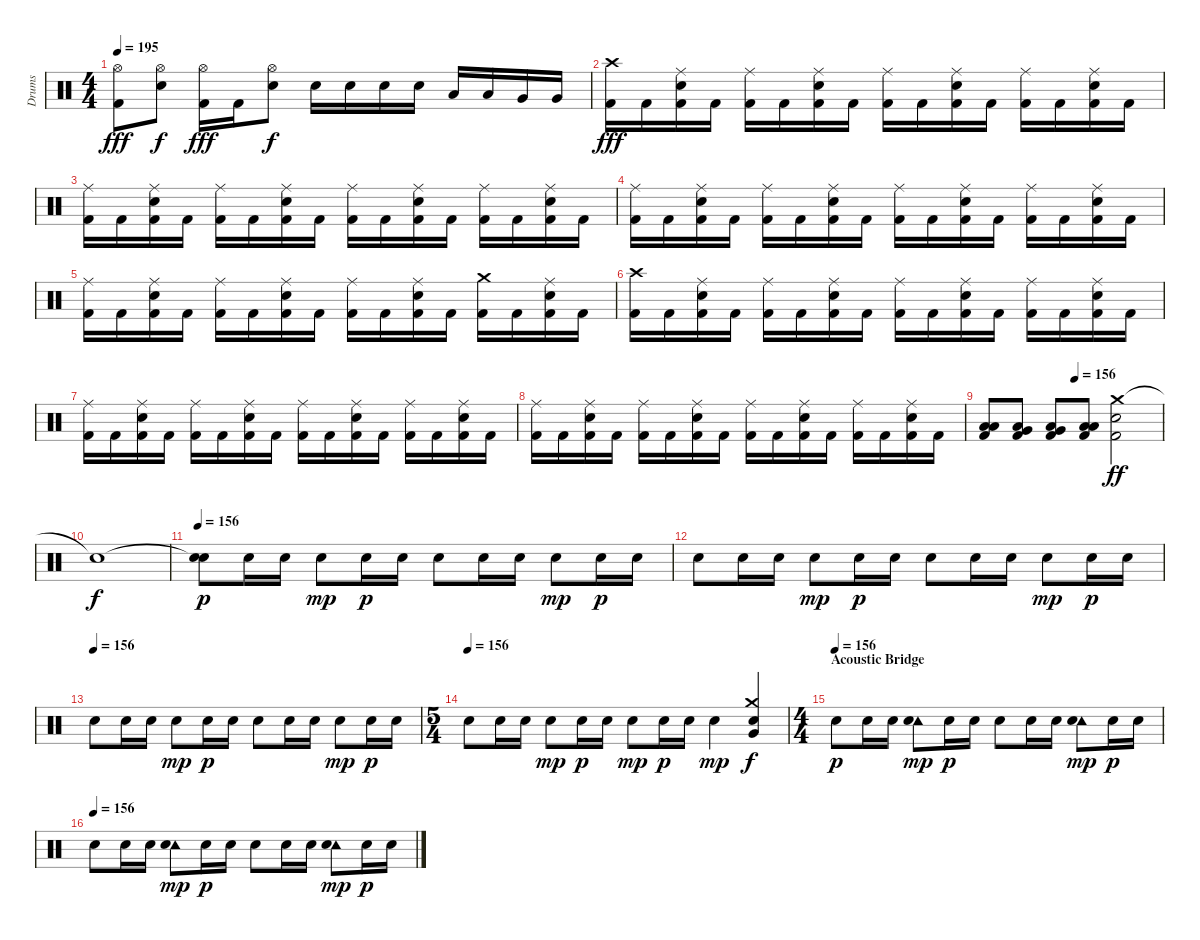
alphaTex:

\track ("Drums" "Drums") {instrument percussion}
\staff {score}
\articulation defaults
\ts (4 4)
\tempo 195
\clef neutral
\ks c
("Hi-Hat (open)" "Kick (hit) 2").8{dy fff} ("Hi-Hat (open)" "Snare (hit) 2").8{dy f} ("Hi-Hat (open)" "Kick (hit) 2").16{dy fff} "Kick (hit) 2".16 ("Hi-Hat (open)" "Snare (hit) 2").8{dy f} "Snare (hit) 2".16 "Snare (hit) 2".16 "Snare (hit) 2".16 "Snare (hit) 2".16 "Low Tom (hit)".16 "Low Tom (hit)".16 "Very Low Tom (hit)".16 "Very Low Tom (hit)".16 |
("Crash high (hit)" "Kick (hit) 2").16{dy fff} "Kick (hit) 2".16 ("Ride (middle)" "Snare (hit) 2" "Kick (hit) 2").16 "Kick (hit) 2".16 ("Ride (middle)" "Kick (hit) 2").16 "Kick (hit) 2".16 ("Ride (middle)" "Snare (hit) 2" "Kick (hit) 2").16 "Kick (hit) 2".16 ("Ride (middle)" "Kick (hit) 2").16 "Kick (hit) 2".16 ("Ride (middle)" "Snare (hit) 2" "Kick (hit) 2").16 "Kick (hit) 2".16 ("Ride (middle)" "Kick (hit) 2").16 "Kick (hit) 2".16 ("Ride (middle)" "Snare (hit) 2" "Kick (hit) 2").16 "Kick (hit) 2".16 |
("Ride (middle)" "Kick (hit) 2").16 "Kick (hit) 2".16 ("Ride (middle)" "Snare (hit) 2" "Kick (hit) 2").16 "Kick (hit) 2".16 ("Ride (middle)" "Kick (hit) 2").16 "Kick (hit) 2".16 ("Ride (middle)" "Snare (hit) 2" "Kick (hit) 2").16 "Kick (hit) 2".16 ("Ride (middle)" "Kick (hit) 2").16 "Kick (hit) 2".16 ("Ride (middle)" "Snare (hit) 2" "Kick (hit) 2").16 "Kick (hit) 2".16 ("Ride (middle)" "Kick (hit) 2").16 "Kick (hit) 2".16 ("Ride (middle)" "Snare (hit) 2" "Kick (hit) 2").16 "Kick (hit) 2".16 |
("Ride (middle)" "Kick (hit) 2").16 "Kick (hit) 2".16 ("Ride (middle)" "Snare (hit) 2" "Kick (hit) 2").16 "Kick (hit) 2".16 ("Ride (middle)" "Kick (hit) 2").16 "Kick (hit) 2".16 ("Ride (middle)" "Snare (hit) 2" "Kick (hit) 2").16 "Kick (hit) 2".16 ("Ride (middle)" "Kick (hit) 2").16 "Kick (hit) 2".16 ("Ride (middle)" "Snare (hit) 2" "Kick (hit) 2").16 "Kick (hit) 2".16 ("Ride (middle)" "Kick (hit) 2").16 "Kick (hit) 2".16 ("Ride (middle)" "Snare (hit) 2" "Kick (hit) 2").16 "Kick (hit) 2".16 |
("Ride (middle)" "Kick (hit) 2").16 "Kick (hit) 2".16 ("Ride (middle)" "Snare (hit) 2" "Kick (hit) 2").16 "Kick (hit) 2".16 ("Ride (middle)" "Kick (hit) 2").16 "Kick (hit) 2".16 ("Ride (middle)" "Snare (hit) 2" "Kick (hit) 2").16 "Kick (hit) 2".16 ("Ride (middle)" "Kick (hit) 2").16 "Kick (hit) 2".16 ("Ride (middle)" "Snare (hit) 2" "Kick (hit) 2").16 "Kick (hit) 2".16 ("Crash medium (hit)" "Kick (hit) 2").16 "Kick (hit) 2".16 ("Ride (middle)" "Snare (hit) 2" "Kick (hit) 2").16 "Kick (hit) 2".16 |
("Crash high (hit)" "Kick (hit) 2").16 "Kick (hit) 2".16 ("Ride (middle)" "Snare (hit) 2" "Kick (hit) 2").16 "Kick (hit) 2".16 ("Ride (middle)" "Kick (hit) 2").16 "Kick (hit) 2".16 ("Ride (middle)" "Snare (hit) 2" "Kick (hit) 2").16 "Kick (hit) 2".16 ("Ride (middle)" "Kick (hit) 2").16 "Kick (hit) 2".16 ("Ride (middle)" "Snare (hit) 2" "Kick (hit) 2").16 "Kick (hit) 2".16 ("Ride (middle)" "Kick (hit) 2").16 "Kick (hit) 2".16 ("Ride (middle)" "Snare (hit) 2" "Kick (hit) 2").16 "Kick (hit) 2".16 |
("Ride (middle)" "Kick (hit) 2").16 "Kick (hit) 2".16 ("Ride (middle)" "Snare (hit) 2" "Kick (hit) 2").16 "Kick (hit) 2".16 ("Ride (middle)" "Kick (hit) 2").16 "Kick (hit) 2".16 ("Ride (middle)" "Snare (hit) 2" "Kick (hit) 2").16 "Kick (hit) 2".16 ("Ride (middle)" "Kick (hit) 2").16 "Kick (hit) 2".16 ("Ride (middle)" "Snare (hit) 2" "Kick (hit) 2").16 "Kick (hit) 2".16 ("Ride (middle)" "Kick (hit) 2").16 "Kick (hit) 2".16 ("Ride (middle)" "Snare (hit) 2" "Kick (hit) 2").16 "Kick (hit) 2".16 |
("Ride (middle)" "Kick (hit) 2").16 "Kick (hit) 2".16 ("Ride (middle)" "Snare (hit) 2" "Kick (hit) 2").16 "Kick (hit) 2".16 ("Ride (middle)" "Kick (hit) 2").16 "Kick (hit) 2".16 ("Ride (middle)" "Snare (hit) 2" "Kick (hit) 2").16 "Kick (hit) 2".16 ("Ride (middle)" "Kick (hit) 2").16 "Kick (hit) 2".16 ("Ride (middle)" "Snare (hit) 2" "Kick (hit) 2").16 "Kick (hit) 2".16 ("Ride (middle)" "Kick (hit) 2").16 "Kick (hit) 2".16 ("Ride (middle)" "Snare (hit) 2" "Kick (hit) 2").16 "Kick (hit) 2".16 |
\tempo (156 0.5)
("Low Tom (hit)" "Low Floor Tom (hit)" "Kick (hit) 2").8 ("Very Low Tom (hit)" "Low Floor Tom (hit)" "Kick (hit) 2").8 ("Very Low Tom (hit)" "Low Floor Tom (hit)" "Kick (hit) 2").8 ("Low Floor Tom (hit)" "Low Floor Tom (hit)" "Kick (hit) 2").8 ("Crash medium (hit)" "Snare (hit) 2" "Kick (hit) 2").2{dy ff} |
"Snare (hit)"{t}.1{dy f} |
\tempo 156
("Snare (hit)"{t} "Snare (hit) 2").8{dy p volume 0} "Snare (hit) 2".16{volume 10} "Snare (hit) 2".16 "Snare (hit) 2".8{dy mp} "Snare (hit) 2".16{dy p} "Snare (hit) 2".16 "Snare (hit) 2".8 "Snare (hit) 2".16 "Snare (hit) 2".16 "Snare (hit) 2".8{dy mp} "Snare (hit) 2".16{dy p} "Snare (hit) 2".16 |
"Snare (hit) 2".8 "Snare (hit) 2".16 "Snare (hit) 2".16 "Snare (hit) 2".8{dy mp} "Snare (hit) 2".16{dy p} "Snare (hit) 2".16 "Snare (hit) 2".8 "Snare (hit) 2".16 "Snare (hit) 2".16 "Snare (hit) 2".8{dy mp} "Snare (hit) 2".16{dy p} "Snare (hit) 2".16 |
\tempo (156)
"Snare (hit) 2".8 "Snare (hit) 2".16 "Snare (hit) 2".16 "Snare (hit) 2".8{dy mp} "Snare (hit) 2".16{dy p} "Snare (hit) 2".16 "Snare (hit) 2".8 "Snare (hit) 2".16 "Snare (hit) 2".16 "Snare (hit) 2".8{dy mp} "Snare (hit) 2".16{dy p} "Snare (hit) 2".16 |
\ts (5 4)
\tempo (156)
"Snare (hit) 2".8 "Snare (hit) 2".16 "Snare (hit) 2".16 "Snare (hit) 2".8{dy mp} "Snare (hit) 2".16{dy p} "Snare (hit) 2".16 "Snare (hit) 2".8{dy mp} "Snare (hit) 2".16{dy p} "Snare (hit) 2".16 "Snare (hit) 2".4{dy mp} ("Crash medium (hit)" "Hand Clap (hit)" "Very Low Tom (hit)").4{dy f} |
\ts (4 4)
\section ("" "Acoustic Bridge")
\tempo (156)
"Snare (hit) 2".8{dy p volume 10} "Snare (hit) 2".16 "Snare (hit) 2".16 ("Tambourine (hit)" "Snare (hit) 2").8{dy mp} "Snare (hit) 2".16{dy p} "Snare (hit) 2".16 "Snare (hit) 2".8 "Snare (hit) 2".16 "Snare (hit) 2".16 ("Tambourine (hit)" "Snare (hit) 2").8{dy mp} "Snare (hit) 2".16{dy p} "Snare (hit) 2".16 |
\tempo (156)
"Snare (hit) 2".8 "Snare (hit) 2".16 "Snare (hit) 2".16 ("Tambourine (hit)" "Snare (hit) 2").8{dy mp} "Snare (hit) 2".16{dy p} "Snare (hit) 2".16 "Snare (hit) 2".8 "Snare (hit) 2".16 "Snare (hit) 2".16 ("Tambourine (hit)" "Snare (hit) 2").8{dy mp} "Snare (hit) 2".16{dy p} "Snare (hit) 2".16
